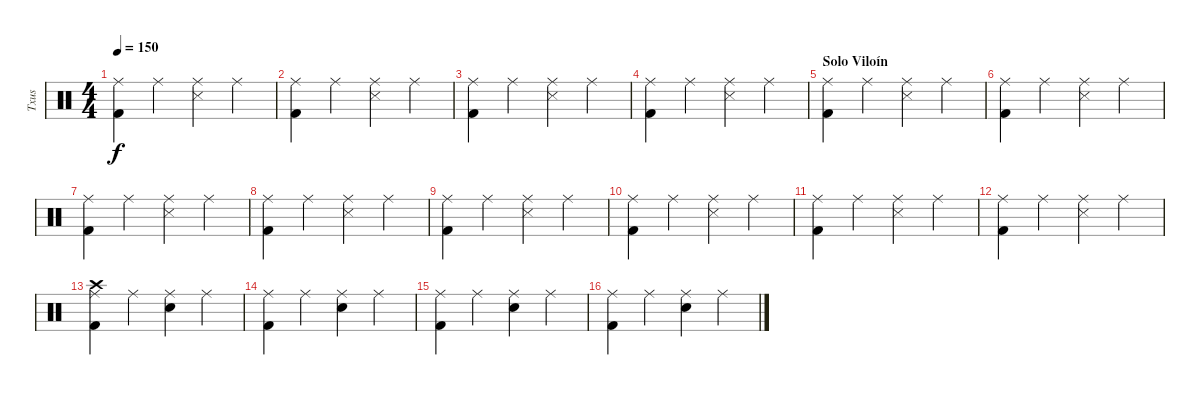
\track ("Txus" "Txus") {instrument percussion}
\staff {score}
\articulation defaults
\ts (4 4)
\tempo 150
\clef neutral
\ks c
("Ride (middle)" "Kick (hit) 2").4{dy f} "Ride (middle)".4 ("Snare (side stick) 3" "Ride (middle)").4 "Ride (middle)".4 |
("Kick (hit) 2" "Ride (middle)").4 "Ride (middle)".4 ("Snare (side stick) 3" "Ride (middle)").4 "Ride (middle)".4 |
("Ride (middle)" "Kick (hit) 2").4 "Ride (middle)".4 ("Snare (side stick) 3" "Ride (middle)").4 "Ride (middle)".4 |
("Kick (hit) 2" "Ride (middle)").4 "Ride (middle)".4 ("Snare (side stick) 3" "Ride (middle)").4 "Ride (middle)".4 |
\section ("" "Solo Viloín")
("Ride (middle)" "Kick (hit) 2").4 "Ride (middle)".4 ("Snare (side stick) 3" "Ride (middle)").4 "Ride (middle)".4 |
("Kick (hit) 2" "Ride (middle)").4 "Ride (middle)".4 ("Snare (side stick) 3" "Ride (middle)").4 "Ride (middle)".4 |
("Ride (middle)" "Kick (hit) 2").4 "Ride (middle)".4 ("Snare (side stick) 3" "Ride (middle)").4 "Ride (middle)".4 |
("Kick (hit) 2" "Ride (middle)").4 "Ride (middle)".4 ("Snare (side stick) 3" "Ride (middle)").4 "Ride (middle)".4 |
("Kick (hit) 2" "Ride (middle)").4 "Ride (middle)".4 ("Snare (side stick) 3" "Ride (middle)").4 "Ride (middle)".4 |
("Kick (hit) 2" "Ride (middle)").4 "Ride (middle)".4 ("Snare (side stick) 3" "Ride (middle)").4 "Ride (middle)".4 |
("Ride (middle)" "Kick (hit) 2").4 "Ride (middle)".4 ("Snare (side stick) 3" "Ride (middle)").4 "Ride (middle)".4 |
("Kick (hit) 2" "Ride (middle)").4 "Ride (middle)".4 ("Snare (side stick) 3" "Ride (middle)").4 "Ride (middle)".4 |
("Ride (middle)" "Kick (hit) 2" "Crash high (hit)").4 "Ride (middle)".4 ("Snare (hit) 2" "Ride (middle)").4 "Ride (middle)".4 |
("Ride (middle)" "Kick (hit) 2").4 "Ride (middle)".4 ("Snare (hit) 2" "Ride (middle)").4 "Ride (middle)".4 |
("Ride (middle)" "Kick (hit) 2").4 "Ride (middle)".4 ("Snare (hit) 2" "Ride (middle)").4 "Ride (middle)".4 |
("Ride (middle)" "Kick (hit) 2").4 "Ride (middle)".4 ("Snare (hit) 2" "Ride (middle)").4 "Ride (middle)".4
